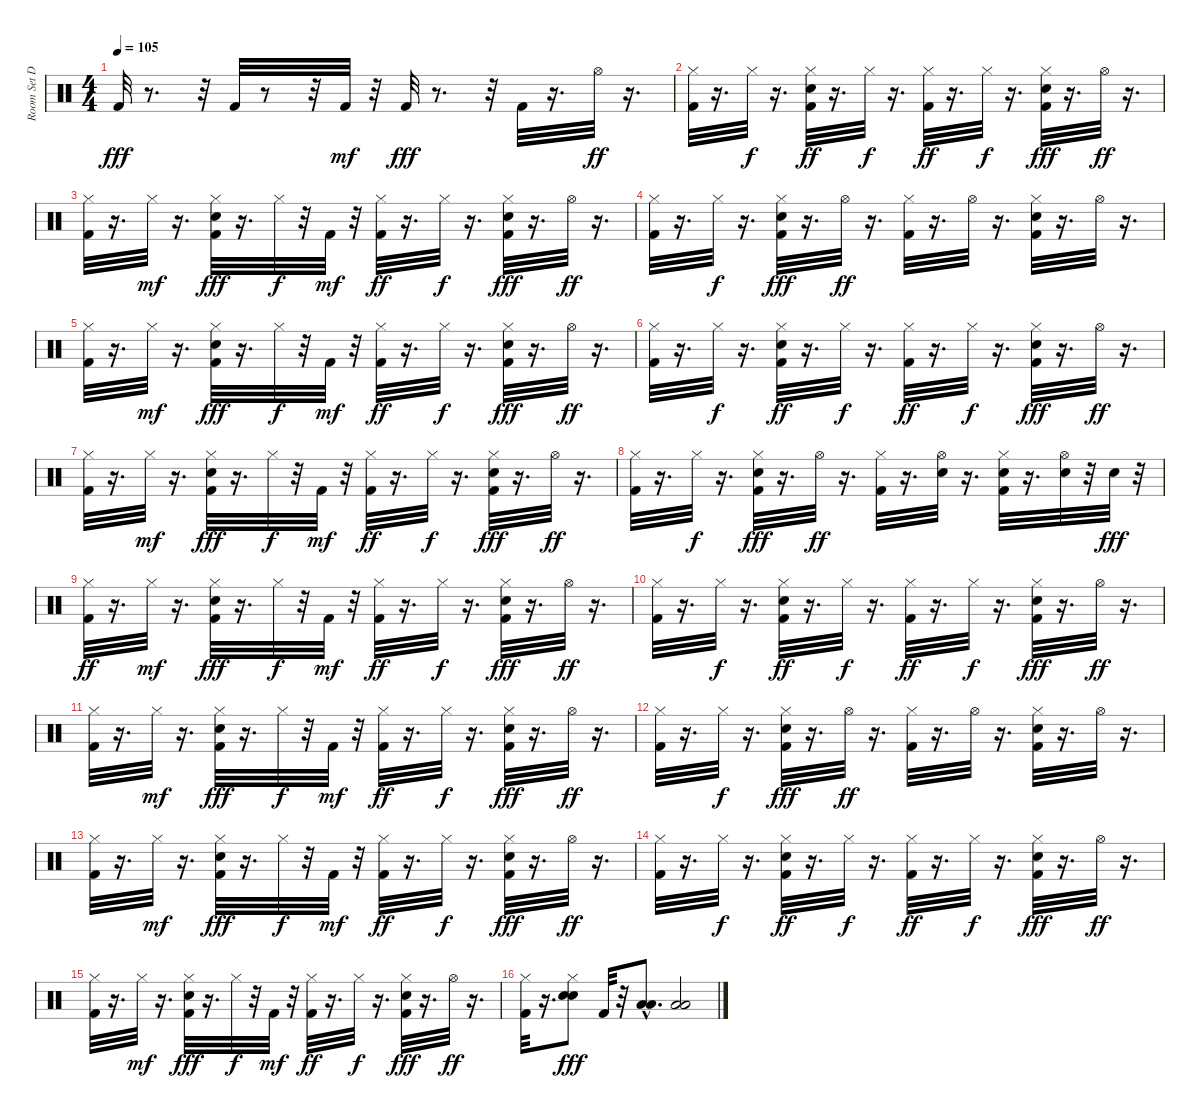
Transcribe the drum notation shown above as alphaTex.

\track ("Room Set Drums" "Room Set D") {instrument percussion}
\staff {score}
\articulation defaults
\ts (4 4)
\tempo 105
\clef neutral
\ks c "Kick (hit) 2".32{dy fff}
r.8{d} r.32 "Kick (hit) 2".32 r.8 r.32 "Kick (hit) 2".32{dy mf} r.32 "Kick (hit) 2".32{dy fff} r.8{d} r.32 "Kick (hit) 2".32 r.16{d} "Hi-Hat (open)".32{dy ff} r.16{d} |
("Kick (hit) 2" "Hi-Hat (closed)").32 r.16{d} "Hi-Hat (closed)".32{dy f} r.16{d} ("Kick (hit) 2" "Electric Snare (hit)" "Hi-Hat (closed)").32{dy ff} r.16{d} "Hi-Hat (closed)".32{dy f} r.16{d} ("Kick (hit) 2" "Hi-Hat (closed)").32{dy ff} r.16{d} "Hi-Hat (closed)".32{dy f} r.16{d} ("Kick (hit) 2" "Electric Snare (hit)" "Hi-Hat (closed)").32{dy fff} r.16{d} "Hi-Hat (open)".32{dy ff} r.16{d} |
("Kick (hit) 2" "Hi-Hat (closed)").32 r.16{d} "Hi-Hat (closed)".32{dy mf} r.16{d} ("Kick (hit) 2" "Electric Snare (hit)" "Hi-Hat (closed)").32{dy fff} r.16{d} "Hi-Hat (closed)".32{dy f} r.32 "Kick (hit) 2".32{dy mf} r.32 ("Kick (hit) 2" "Hi-Hat (closed)").32{dy ff} r.16{d} "Hi-Hat (closed)".32{dy f} r.16{d} ("Kick (hit) 2" "Electric Snare (hit)" "Hi-Hat (closed)").32{dy fff} r.16{d} "Hi-Hat (open)".32{dy ff} r.16{d} |
("Kick (hit) 2" "Hi-Hat (closed)").32 r.16{d} "Hi-Hat (closed)".32{dy f} r.16{d} ("Kick (hit) 2" "Electric Snare (hit)" "Hi-Hat (closed)").32{dy fff} r.16{d} "Hi-Hat (open)".32{dy ff} r.16{d} ("Kick (hit) 2" "Hi-Hat (closed)").32 r.16{d} "Hi-Hat (open)".32 r.16{d} ("Kick (hit) 2" "Electric Snare (hit)" "Hi-Hat (closed)").32 r.16{d} "Hi-Hat (open)".32 r.16{d} |
("Kick (hit) 2" "Hi-Hat (closed)").32 r.16{d} "Hi-Hat (closed)".32{dy mf} r.16{d} ("Kick (hit) 2" "Electric Snare (hit)" "Hi-Hat (closed)").32{dy fff} r.16{d} "Hi-Hat (closed)".32{dy f} r.32 "Kick (hit) 2".32{dy mf} r.32 ("Kick (hit) 2" "Hi-Hat (closed)").32{dy ff} r.16{d} "Hi-Hat (closed)".32{dy f} r.16{d} ("Kick (hit) 2" "Electric Snare (hit)" "Hi-Hat (closed)").32{dy fff} r.16{d} "Hi-Hat (open)".32{dy ff} r.16{d} |
("Kick (hit) 2" "Hi-Hat (closed)").32 r.16{d} "Hi-Hat (closed)".32{dy f} r.16{d} ("Kick (hit) 2" "Electric Snare (hit)" "Hi-Hat (closed)").32{dy ff} r.16{d} "Hi-Hat (closed)".32{dy f} r.16{d} ("Kick (hit) 2" "Hi-Hat (closed)").32{dy ff} r.16{d} "Hi-Hat (closed)".32{dy f} r.16{d} ("Kick (hit) 2" "Electric Snare (hit)" "Hi-Hat (closed)").32{dy fff} r.16{d} "Hi-Hat (open)".32{dy ff} r.16{d} |
("Kick (hit) 2" "Hi-Hat (closed)").32 r.16{d} "Hi-Hat (closed)".32{dy mf} r.16{d} ("Kick (hit) 2" "Electric Snare (hit)" "Hi-Hat (closed)").32{dy fff} r.16{d} "Hi-Hat (closed)".32{dy f} r.32 "Kick (hit) 2".32{dy mf} r.32 ("Kick (hit) 2" "Hi-Hat (closed)").32{dy ff} r.16{d} "Hi-Hat (closed)".32{dy f} r.16{d} ("Kick (hit) 2" "Electric Snare (hit)" "Hi-Hat (closed)").32{dy fff} r.16{d} "Hi-Hat (open)".32{dy ff} r.16{d} |
("Kick (hit) 2" "Hi-Hat (closed)").32 r.16{d} "Hi-Hat (closed)".32{dy f} r.16{d} ("Kick (hit) 2" "Electric Snare (hit)" "Hi-Hat (closed)").32{dy fff} r.16{d} "Hi-Hat (open)".32{dy ff} r.16{d} ("Kick (hit) 2" "Hi-Hat (closed)").32 r.16{d} ("Electric Snare (hit)" "Hi-Hat (open)").32 r.16{d} ("Kick (hit) 2" "Electric Snare (hit)" "Hi-Hat (closed)").32 r.16{d} ("Electric Snare (hit)" "Hi-Hat (open)").32 r.32 "Electric Snare (hit)".32{dy fff} r.32 |
("Kick (hit) 2" "Hi-Hat (closed)").32{dy ff} r.16{d} "Hi-Hat (closed)".32{dy mf} r.16{d} ("Kick (hit) 2" "Electric Snare (hit)" "Hi-Hat (closed)").32{dy fff} r.16{d} "Hi-Hat (closed)".32{dy f} r.32 "Kick (hit) 2".32{dy mf} r.32 ("Kick (hit) 2" "Hi-Hat (closed)").32{dy ff} r.16{d} "Hi-Hat (closed)".32{dy f} r.16{d} ("Kick (hit) 2" "Electric Snare (hit)" "Hi-Hat (closed)").32{dy fff} r.16{d} "Hi-Hat (open)".32{dy ff} r.16{d} |
("Kick (hit) 2" "Hi-Hat (closed)").32 r.16{d} "Hi-Hat (closed)".32{dy f} r.16{d} ("Kick (hit) 2" "Electric Snare (hit)" "Hi-Hat (closed)").32{dy ff} r.16{d} "Hi-Hat (closed)".32{dy f} r.16{d} ("Kick (hit) 2" "Hi-Hat (closed)").32{dy ff} r.16{d} "Hi-Hat (closed)".32{dy f} r.16{d} ("Kick (hit) 2" "Electric Snare (hit)" "Hi-Hat (closed)").32{dy fff} r.16{d} "Hi-Hat (open)".32{dy ff} r.16{d} |
("Kick (hit) 2" "Hi-Hat (closed)").32 r.16{d} "Hi-Hat (closed)".32{dy mf} r.16{d} ("Kick (hit) 2" "Electric Snare (hit)" "Hi-Hat (closed)").32{dy fff} r.16{d} "Hi-Hat (closed)".32{dy f} r.32 "Kick (hit) 2".32{dy mf} r.32 ("Kick (hit) 2" "Hi-Hat (closed)").32{dy ff} r.16{d} "Hi-Hat (closed)".32{dy f} r.16{d} ("Kick (hit) 2" "Electric Snare (hit)" "Hi-Hat (closed)").32{dy fff} r.16{d} "Hi-Hat (open)".32{dy ff} r.16{d} |
("Kick (hit) 2" "Hi-Hat (closed)").32 r.16{d} "Hi-Hat (closed)".32{dy f} r.16{d} ("Kick (hit) 2" "Electric Snare (hit)" "Hi-Hat (closed)").32{dy fff} r.16{d} "Hi-Hat (open)".32{dy ff} r.16{d} ("Kick (hit) 2" "Hi-Hat (closed)").32 r.16{d} "Hi-Hat (open)".32 r.16{d} ("Kick (hit) 2" "Electric Snare (hit)" "Hi-Hat (closed)").32 r.16{d} "Hi-Hat (open)".32 r.16{d} |
("Kick (hit) 2" "Hi-Hat (closed)").32 r.16{d} "Hi-Hat (closed)".32{dy mf} r.16{d} ("Kick (hit) 2" "Electric Snare (hit)" "Hi-Hat (closed)").32{dy fff} r.16{d} "Hi-Hat (closed)".32{dy f} r.32 "Kick (hit) 2".32{dy mf} r.32 ("Kick (hit) 2" "Hi-Hat (closed)").32{dy ff} r.16{d} "Hi-Hat (closed)".32{dy f} r.16{d} ("Kick (hit) 2" "Electric Snare (hit)" "Hi-Hat (closed)").32{dy fff} r.16{d} "Hi-Hat (open)".32{dy ff} r.16{d} |
("Kick (hit) 2" "Hi-Hat (closed)").32 r.16{d} "Hi-Hat (closed)".32{dy f} r.16{d} ("Kick (hit) 2" "Electric Snare (hit)" "Hi-Hat (closed)").32{dy ff} r.16{d} "Hi-Hat (closed)".32{dy f} r.16{d} ("Kick (hit) 2" "Hi-Hat (closed)").32{dy ff} r.16{d} "Hi-Hat (closed)".32{dy f} r.16{d} ("Kick (hit) 2" "Electric Snare (hit)" "Hi-Hat (closed)").32{dy fff} r.16{d} "Hi-Hat (open)".32{dy ff} r.16{d} |
("Kick (hit) 2" "Hi-Hat (closed)").32 r.16{d} "Hi-Hat (closed)".32{dy mf} r.16{d} ("Kick (hit) 2" "Electric Snare (hit)" "Hi-Hat (closed)").32{dy fff} r.16{d} "Hi-Hat (closed)".32{dy f} r.32 "Kick (hit) 2".32{dy mf} r.32 ("Kick (hit) 2" "Hi-Hat (closed)").32{dy ff} r.16{d} "Hi-Hat (closed)".32{dy f} r.16{d} ("Kick (hit) 2" "Electric Snare (hit)" "Hi-Hat (closed)").32{dy fff} r.16{d} "Hi-Hat (open)".32{dy ff} r.16{d} |
("Kick (hit) 2" "Hi-Hat (closed)").32 r.16{d} ("Electric Snare (hit)" "Hi-Hat (closed)" "Electric Snare (hit)").8{dy fff} "Kick (hit) 2".32 r.32 ("Low Tom (hit)"{hac} "Low Tom (hit)").8{d} ("Low Floor Tom (hit)" "Low Floor Tom (hit)").2
